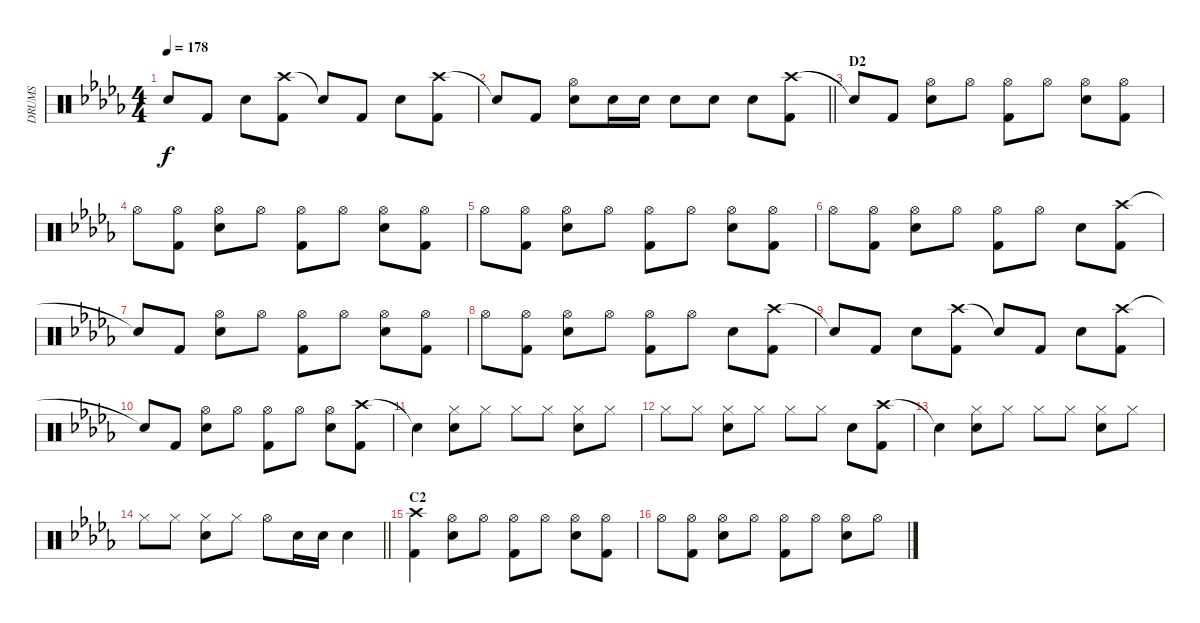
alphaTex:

\track ("DRUMS" "DRUMS") {instrument percussion}
\staff {score}
\articulation defaults
\ts (4 4)
\tempo 178
\clef neutral
\ks db "Snare (hit)"{t}.8{dy f} "Kick (hit) 2".8 "Snare (hit) 2".8
("Crash high (hit)" "Kick (hit) 2").8 "Snare (hit)"{t}.8 "Kick (hit) 2".8 "Snare (hit) 2".8 ("Crash high (hit)" "Kick (hit) 2").8 |
\barLineRight lightlight "Snare (hit)"{t}.8 "Kick (hit) 2".8
("Hi-Hat (open)" "Snare (hit) 2").8 "Snare (hit) 2".16 "Snare (hit) 2".16 "Snare (hit) 2".8 "Snare (hit) 2".8 "Snare (hit) 2".8 ("Crash high (hit)" "Kick (hit) 2").8 |
\section ("" "D2")
"Snare (hit)"{t}.8 "Kick (hit) 2".8 ("Hi-Hat (open)" "Snare (hit) 2").8 "Hi-Hat (open)".8 ("Hi-Hat (open)" "Kick (hit) 2").8 "Hi-Hat (open)".8 ("Hi-Hat (open)" "Snare (hit) 2").8 ("Hi-Hat (open)" "Kick (hit) 2").8 |
"Hi-Hat (open)".8 ("Hi-Hat (open)" "Kick (hit) 2").8 ("Hi-Hat (open)" "Snare (hit) 2").8 "Hi-Hat (open)".8 ("Hi-Hat (open)" "Kick (hit) 2").8 "Hi-Hat (open)".8 ("Hi-Hat (open)" "Snare (hit) 2").8 ("Hi-Hat (open)" "Kick (hit) 2").8 |
"Hi-Hat (open)".8 ("Hi-Hat (open)" "Kick (hit) 2").8 ("Hi-Hat (open)" "Snare (hit) 2").8 "Hi-Hat (open)".8 ("Hi-Hat (open)" "Kick (hit) 2").8 "Hi-Hat (open)".8 ("Hi-Hat (open)" "Snare (hit) 2").8 ("Hi-Hat (open)" "Kick (hit) 2").8 |
"Hi-Hat (open)".8 ("Hi-Hat (open)" "Kick (hit) 2").8 ("Hi-Hat (open)" "Snare (hit) 2").8 "Hi-Hat (open)".8 ("Hi-Hat (open)" "Kick (hit) 2").8 "Hi-Hat (open)".8 "Snare (hit) 2".8 ("Crash high (hit)" "Kick (hit) 2").8 |
"Snare (hit)"{t}.8 "Kick (hit) 2".8 ("Hi-Hat (open)" "Snare (hit) 2").8 "Hi-Hat (open)".8 ("Hi-Hat (open)" "Kick (hit) 2").8 "Hi-Hat (open)".8 ("Hi-Hat (open)" "Snare (hit) 2").8 ("Hi-Hat (open)" "Kick (hit) 2").8 |
"Hi-Hat (open)".8 ("Hi-Hat (open)" "Kick (hit) 2").8 ("Hi-Hat (open)" "Snare (hit) 2").8 "Hi-Hat (open)".8 ("Hi-Hat (open)" "Kick (hit) 2").8 "Hi-Hat (open)".8 "Snare (hit) 2".8 ("Crash high (hit)" "Kick (hit) 2").8 |
"Snare (hit)"{t}.8 "Kick (hit) 2".8 "Snare (hit) 2".8 ("Crash high (hit)" "Kick (hit) 2").8 "Snare (hit)"{t}.8 "Kick (hit) 2".8 "Snare (hit) 2".8 ("Crash high (hit)" "Kick (hit) 2").8 |
"Snare (hit)"{t}.8 "Kick (hit) 2".8 ("Hi-Hat (open)" "Snare (hit) 2").8 "Hi-Hat (open)".8 ("Hi-Hat (open)" "Kick (hit) 2").8 "Hi-Hat (open)".8 ("Hi-Hat (open)" "Snare (hit) 2").8 ("Crash high (hit)" "Kick (hit) 2").8 |
"Snare (hit)"{t}.4 ("Hi-Hat (closed)" "Snare (hit) 2").8 "Hi-Hat (closed)".8 "Hi-Hat (closed)".8 "Hi-Hat (closed)".8 ("Hi-Hat (closed)" "Snare (hit) 2").8 "Hi-Hat (closed)".8 |
"Hi-Hat (closed)".8 "Hi-Hat (closed)".8 ("Hi-Hat (closed)" "Snare (hit) 2").8 "Hi-Hat (closed)".8 "Hi-Hat (closed)".8 "Hi-Hat (closed)".8 "Snare (hit) 2".8 ("Crash high (hit)" "Kick (hit) 2").8 |
"Snare (hit)"{t}.4 ("Hi-Hat (closed)" "Snare (hit) 2").8 "Hi-Hat (closed)".8 "Hi-Hat (closed)".8 "Hi-Hat (closed)".8 ("Hi-Hat (closed)" "Snare (hit) 2").8 "Hi-Hat (closed)".8 |
\barLineRight lightlight "Hi-Hat (closed)".8 "Hi-Hat (closed)".8
("Hi-Hat (closed)" "Snare (hit) 2").8 "Hi-Hat (closed)".8 "Hi-Hat (open)".8 "Snare (hit) 2".16 "Snare (hit) 2".16 "Snare (hit) 2".4 |
\section ("" "C2")
("Crash high (hit)" "Kick (hit) 2").4 ("Hi-Hat (open)" "Snare (hit) 2").8 "Hi-Hat (open)".8 ("Hi-Hat (open)" "Kick (hit) 2").8 "Hi-Hat (open)".8 ("Hi-Hat (open)" "Snare (hit) 2").8 ("Hi-Hat (open)" "Kick (hit) 2").8 |
"Hi-Hat (open)".8 ("Hi-Hat (open)" "Kick (hit) 2").8 ("Hi-Hat (open)" "Snare (hit) 2").8 "Hi-Hat (open)".8 ("Hi-Hat (open)" "Kick (hit) 2").8 "Hi-Hat (open)".8 ("Hi-Hat (open)" "Snare (hit) 2").8 "Hi-Hat (open)".8
